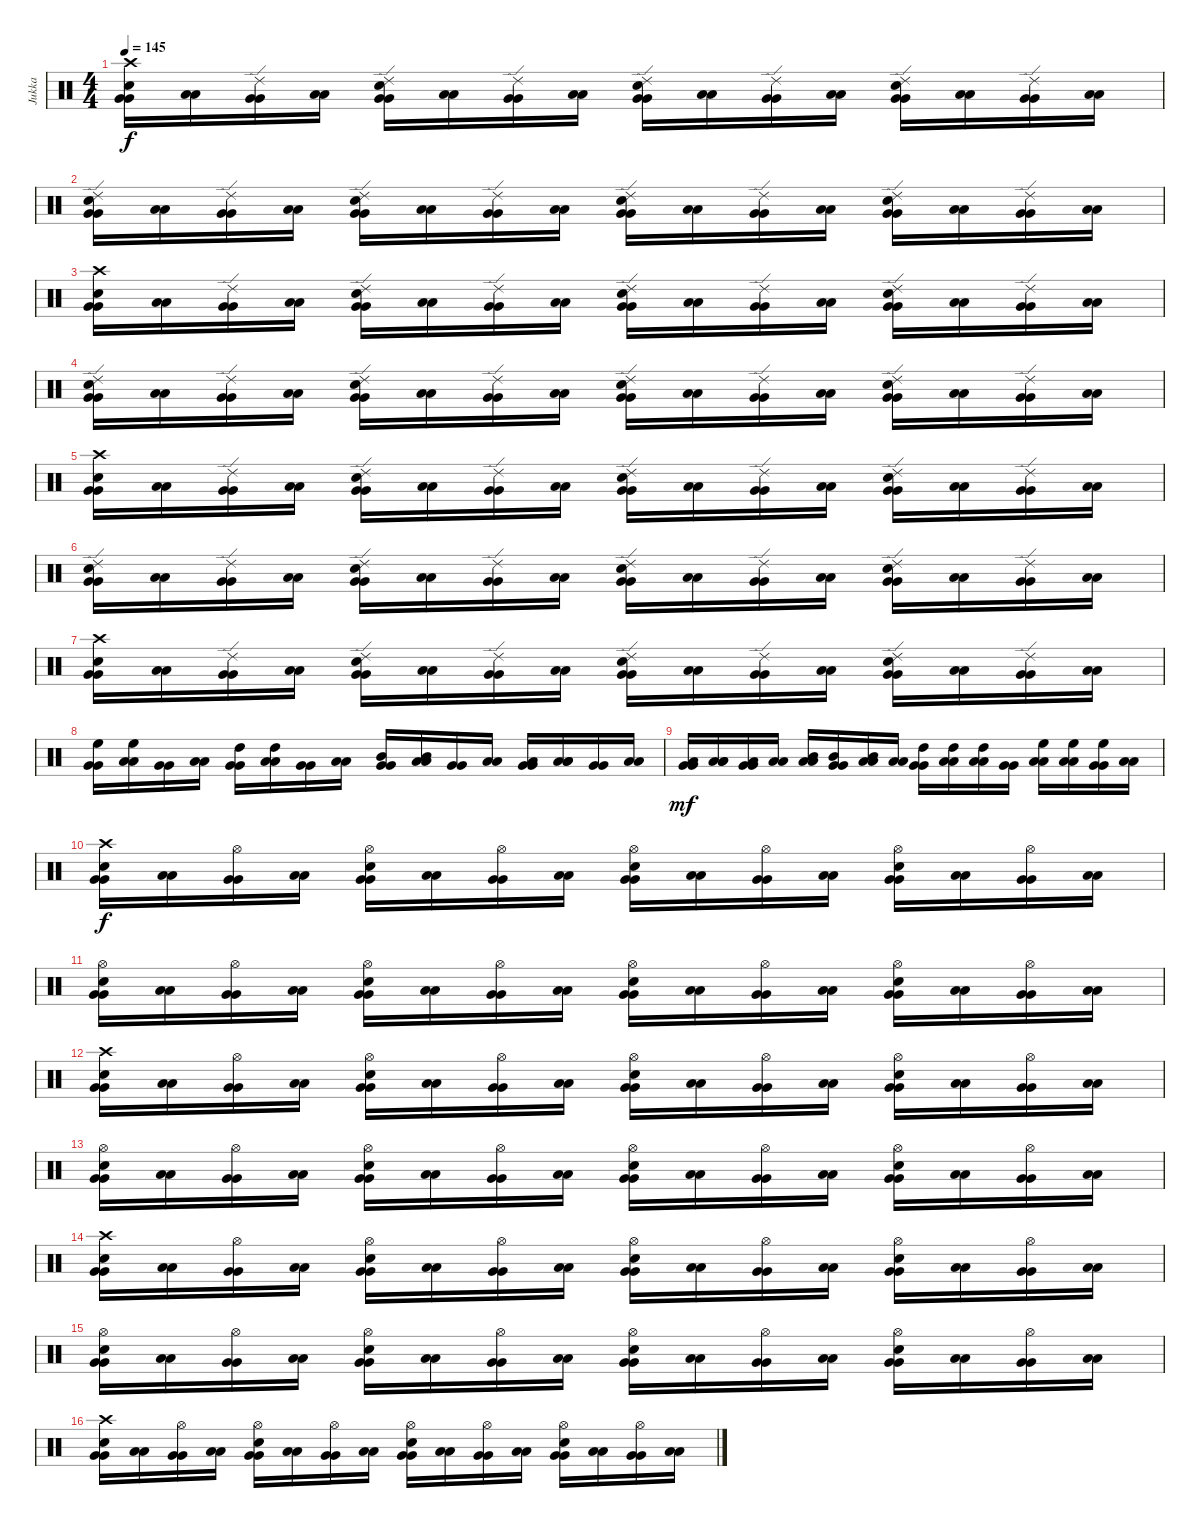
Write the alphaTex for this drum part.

\track ("Jukka" "Jukka") {instrument percussion}
\staff {score}
\articulation defaults
\ts (4 4)
\tempo 145
\clef neutral
\ks c
("Crash high (hit)" "Electric Snare (hit)" "Very Low Tom (hit)" "Very Low Tom (hit)").16{dy f} ("Low Floor Tom (hit)" "Low Floor Tom (hit)").16 ("Ride (edge) 2" "Very Low Tom (hit)" "Very Low Tom (hit)").16 ("Low Floor Tom (hit)" "Low Floor Tom (hit)").16 ("Ride (edge) 2" "Electric Snare (hit)" "Very Low Tom (hit)" "Very Low Tom (hit)").16 ("Low Floor Tom (hit)" "Low Floor Tom (hit)").16 ("Ride (edge) 2" "Very Low Tom (hit)" "Very Low Tom (hit)").16 ("Low Floor Tom (hit)" "Low Floor Tom (hit)").16 ("Ride (edge) 2" "Electric Snare (hit)" "Very Low Tom (hit)" "Very Low Tom (hit)").16 ("Low Floor Tom (hit)" "Low Floor Tom (hit)").16 ("Ride (edge) 2" "Very Low Tom (hit)" "Very Low Tom (hit)").16 ("Low Floor Tom (hit)" "Low Floor Tom (hit)").16 ("Ride (edge) 2" "Electric Snare (hit)" "Very Low Tom (hit)" "Very Low Tom (hit)").16 ("Low Floor Tom (hit)" "Low Floor Tom (hit)").16 ("Ride (edge) 2" "Very Low Tom (hit)" "Very Low Tom (hit)").16 ("Low Floor Tom (hit)" "Low Floor Tom (hit)").16 |
("Ride (edge) 2" "Electric Snare (hit)" "Very Low Tom (hit)" "Very Low Tom (hit)").16 ("Low Floor Tom (hit)" "Low Floor Tom (hit)").16 ("Ride (edge) 2" "Very Low Tom (hit)" "Very Low Tom (hit)").16 ("Low Floor Tom (hit)" "Low Floor Tom (hit)").16 ("Ride (edge) 2" "Electric Snare (hit)" "Very Low Tom (hit)" "Very Low Tom (hit)").16 ("Low Floor Tom (hit)" "Low Floor Tom (hit)").16 ("Ride (edge) 2" "Very Low Tom (hit)" "Very Low Tom (hit)").16 ("Low Floor Tom (hit)" "Low Floor Tom (hit)").16 ("Ride (edge) 2" "Electric Snare (hit)" "Very Low Tom (hit)" "Very Low Tom (hit)").16 ("Low Floor Tom (hit)" "Low Floor Tom (hit)").16 ("Ride (edge) 2" "Very Low Tom (hit)" "Very Low Tom (hit)").16 ("Low Floor Tom (hit)" "Low Floor Tom (hit)").16 ("Ride (edge) 2" "Electric Snare (hit)" "Very Low Tom (hit)" "Very Low Tom (hit)").16 ("Low Floor Tom (hit)" "Low Floor Tom (hit)").16 ("Ride (edge) 2" "Very Low Tom (hit)" "Very Low Tom (hit)").16 ("Low Floor Tom (hit)" "Low Floor Tom (hit)").16 |
("Crash high (hit)" "Electric Snare (hit)" "Very Low Tom (hit)" "Very Low Tom (hit)").16 ("Low Floor Tom (hit)" "Low Floor Tom (hit)").16 ("Ride (edge) 2" "Very Low Tom (hit)" "Very Low Tom (hit)").16 ("Low Floor Tom (hit)" "Low Floor Tom (hit)").16 ("Ride (edge) 2" "Electric Snare (hit)" "Very Low Tom (hit)" "Very Low Tom (hit)").16 ("Low Floor Tom (hit)" "Low Floor Tom (hit)").16 ("Ride (edge) 2" "Very Low Tom (hit)" "Very Low Tom (hit)").16 ("Low Floor Tom (hit)" "Low Floor Tom (hit)").16 ("Ride (edge) 2" "Electric Snare (hit)" "Very Low Tom (hit)" "Very Low Tom (hit)").16 ("Low Floor Tom (hit)" "Low Floor Tom (hit)").16 ("Ride (edge) 2" "Very Low Tom (hit)" "Very Low Tom (hit)").16 ("Low Floor Tom (hit)" "Low Floor Tom (hit)").16 ("Ride (edge) 2" "Electric Snare (hit)" "Very Low Tom (hit)" "Very Low Tom (hit)").16 ("Low Floor Tom (hit)" "Low Floor Tom (hit)").16 ("Ride (edge) 2" "Very Low Tom (hit)" "Very Low Tom (hit)").16 ("Low Floor Tom (hit)" "Low Floor Tom (hit)").16 |
("Ride (edge) 2" "Electric Snare (hit)" "Very Low Tom (hit)" "Very Low Tom (hit)").16 ("Low Floor Tom (hit)" "Low Floor Tom (hit)").16 ("Ride (edge) 2" "Very Low Tom (hit)" "Very Low Tom (hit)").16 ("Low Floor Tom (hit)" "Low Floor Tom (hit)").16 ("Ride (edge) 2" "Electric Snare (hit)" "Very Low Tom (hit)" "Very Low Tom (hit)").16 ("Low Floor Tom (hit)" "Low Floor Tom (hit)").16 ("Ride (edge) 2" "Very Low Tom (hit)" "Very Low Tom (hit)").16 ("Low Floor Tom (hit)" "Low Floor Tom (hit)").16 ("Ride (edge) 2" "Electric Snare (hit)" "Very Low Tom (hit)" "Very Low Tom (hit)").16 ("Low Floor Tom (hit)" "Low Floor Tom (hit)").16 ("Ride (edge) 2" "Very Low Tom (hit)" "Very Low Tom (hit)").16 ("Low Floor Tom (hit)" "Low Floor Tom (hit)").16 ("Ride (edge) 2" "Electric Snare (hit)" "Very Low Tom (hit)" "Very Low Tom (hit)").16 ("Low Floor Tom (hit)" "Low Floor Tom (hit)").16 ("Ride (edge) 2" "Very Low Tom (hit)" "Very Low Tom (hit)").16 ("Low Floor Tom (hit)" "Low Floor Tom (hit)").16 |
("Crash high (hit)" "Electric Snare (hit)" "Very Low Tom (hit)" "Very Low Tom (hit)").16 ("Low Floor Tom (hit)" "Low Floor Tom (hit)").16 ("Ride (edge) 2" "Very Low Tom (hit)" "Very Low Tom (hit)").16 ("Low Floor Tom (hit)" "Low Floor Tom (hit)").16 ("Ride (edge) 2" "Electric Snare (hit)" "Very Low Tom (hit)" "Very Low Tom (hit)").16 ("Low Floor Tom (hit)" "Low Floor Tom (hit)").16 ("Ride (edge) 2" "Very Low Tom (hit)" "Very Low Tom (hit)").16 ("Low Floor Tom (hit)" "Low Floor Tom (hit)").16 ("Ride (edge) 2" "Electric Snare (hit)" "Very Low Tom (hit)" "Very Low Tom (hit)").16 ("Low Floor Tom (hit)" "Low Floor Tom (hit)").16 ("Ride (edge) 2" "Very Low Tom (hit)" "Very Low Tom (hit)").16 ("Low Floor Tom (hit)" "Low Floor Tom (hit)").16 ("Ride (edge) 2" "Electric Snare (hit)" "Very Low Tom (hit)" "Very Low Tom (hit)").16 ("Low Floor Tom (hit)" "Low Floor Tom (hit)").16 ("Ride (edge) 2" "Very Low Tom (hit)" "Very Low Tom (hit)").16 ("Low Floor Tom (hit)" "Low Floor Tom (hit)").16 |
("Ride (edge) 2" "Electric Snare (hit)" "Very Low Tom (hit)" "Very Low Tom (hit)").16 ("Low Floor Tom (hit)" "Low Floor Tom (hit)").16 ("Ride (edge) 2" "Very Low Tom (hit)" "Very Low Tom (hit)").16 ("Low Floor Tom (hit)" "Low Floor Tom (hit)").16 ("Ride (edge) 2" "Electric Snare (hit)" "Very Low Tom (hit)" "Very Low Tom (hit)").16 ("Low Floor Tom (hit)" "Low Floor Tom (hit)").16 ("Ride (edge) 2" "Very Low Tom (hit)" "Very Low Tom (hit)").16 ("Low Floor Tom (hit)" "Low Floor Tom (hit)").16 ("Ride (edge) 2" "Electric Snare (hit)" "Very Low Tom (hit)" "Very Low Tom (hit)").16 ("Low Floor Tom (hit)" "Low Floor Tom (hit)").16 ("Ride (edge) 2" "Very Low Tom (hit)" "Very Low Tom (hit)").16 ("Low Floor Tom (hit)" "Low Floor Tom (hit)").16 ("Ride (edge) 2" "Electric Snare (hit)" "Very Low Tom (hit)" "Very Low Tom (hit)").16 ("Low Floor Tom (hit)" "Low Floor Tom (hit)").16 ("Ride (edge) 2" "Very Low Tom (hit)" "Very Low Tom (hit)").16 ("Low Floor Tom (hit)" "Low Floor Tom (hit)").16 |
("Crash high (hit)" "Electric Snare (hit)" "Very Low Tom (hit)" "Very Low Tom (hit)").16 ("Low Floor Tom (hit)" "Low Floor Tom (hit)").16 ("Ride (edge) 2" "Very Low Tom (hit)" "Very Low Tom (hit)").16 ("Low Floor Tom (hit)" "Low Floor Tom (hit)").16 ("Ride (edge) 2" "Electric Snare (hit)" "Very Low Tom (hit)" "Very Low Tom (hit)").16 ("Low Floor Tom (hit)" "Low Floor Tom (hit)").16 ("Ride (edge) 2" "Very Low Tom (hit)" "Very Low Tom (hit)").16 ("Low Floor Tom (hit)" "Low Floor Tom (hit)").16 ("Ride (edge) 2" "Electric Snare (hit)" "Very Low Tom (hit)" "Very Low Tom (hit)").16 ("Low Floor Tom (hit)" "Low Floor Tom (hit)").16 ("Ride (edge) 2" "Very Low Tom (hit)" "Very Low Tom (hit)").16 ("Low Floor Tom (hit)" "Low Floor Tom (hit)").16 ("Ride (edge) 2" "Electric Snare (hit)" "Very Low Tom (hit)" "Very Low Tom (hit)").16 ("Low Floor Tom (hit)" "Low Floor Tom (hit)").16 ("Ride (edge) 2" "Very Low Tom (hit)" "Very Low Tom (hit)").16 ("Low Floor Tom (hit)" "Low Floor Tom (hit)").16 |
("High Floor Tom (hit)" "Very Low Tom (hit)" "Very Low Tom (hit)").16 ("High Floor Tom (hit)" "Low Floor Tom (hit)" "Low Floor Tom (hit)").16 ("Very Low Tom (hit)" "Very Low Tom (hit)").16 ("Low Floor Tom (hit)" "Low Floor Tom (hit)").16 ("High Tom (hit)" "Very Low Tom (hit)" "Very Low Tom (hit)").16 ("High Tom (hit)" "Low Floor Tom (hit)" "Low Floor Tom (hit)").16 ("Very Low Tom (hit)" "Very Low Tom (hit)").16 ("Low Floor Tom (hit)" "Low Floor Tom (hit)").16 ("Mid Tom (hit)" "Very Low Tom (hit)" "Very Low Tom (hit)").16 ("Mid Tom (hit)" "Low Floor Tom (hit)" "Low Floor Tom (hit)").16 ("Very Low Tom (hit)" "Very Low Tom (hit)").16 ("Low Floor Tom (hit)" "Low Floor Tom (hit)").16 ("Low Tom (hit)" "Very Low Tom (hit)" "Very Low Tom (hit)").16 ("Low Tom (hit)" "Low Floor Tom (hit)" "Low Floor Tom (hit)").16 ("Very Low Tom (hit)" "Very Low Tom (hit)").16 ("Low Floor Tom (hit)" "Low Floor Tom (hit)").16 |
("Low Tom (hit)" "Very Low Tom (hit)" "Very Low Tom (hit)").16{dy mf} ("Low Tom (hit)" "Low Floor Tom (hit)" "Low Floor Tom (hit)").16 ("Low Tom (hit)" "Very Low Tom (hit)" "Very Low Tom (hit)").16 ("Low Floor Tom (hit)" "Low Floor Tom (hit)").16 ("Mid Tom (hit)" "Low Floor Tom (hit)" "Low Floor Tom (hit)").16 ("Mid Tom (hit)" "Very Low Tom (hit)" "Very Low Tom (hit)").16 ("Mid Tom (hit)" "Low Floor Tom (hit)" "Low Floor Tom (hit)").16 ("Low Floor Tom (hit)" "Low Floor Tom (hit)").16 ("High Tom (hit)" "Very Low Tom (hit)" "Very Low Tom (hit)").16 ("High Tom (hit)" "Low Floor Tom (hit)" "Low Floor Tom (hit)").16 ("High Tom (hit)" "Low Floor Tom (hit)" "Low Floor Tom (hit)").16 ("Very Low Tom (hit)" "Very Low Tom (hit)").16 ("High Floor Tom (hit)" "Low Floor Tom (hit)" "Low Floor Tom (hit)").16 ("High Floor Tom (hit)" "Low Floor Tom (hit)" "Low Floor Tom (hit)").16 ("High Floor Tom (hit)" "Very Low Tom (hit)" "Very Low Tom (hit)").16 ("Low Floor Tom (hit)" "Low Floor Tom (hit)").16 |
("Crash high (hit)" "Electric Snare (hit)" "Very Low Tom (hit)" "Very Low Tom (hit)").16{dy f} ("Low Floor Tom (hit)" "Low Floor Tom (hit)").16 ("Hi-Hat (open)" "Very Low Tom (hit)" "Very Low Tom (hit)").16 ("Low Floor Tom (hit)" "Low Floor Tom (hit)").16 ("Hi-Hat (open)" "Electric Snare (hit)" "Very Low Tom (hit)" "Very Low Tom (hit)").16 ("Low Floor Tom (hit)" "Low Floor Tom (hit)").16 ("Hi-Hat (open)" "Very Low Tom (hit)" "Very Low Tom (hit)").16 ("Low Floor Tom (hit)" "Low Floor Tom (hit)").16 ("Hi-Hat (open)" "Electric Snare (hit)" "Very Low Tom (hit)" "Very Low Tom (hit)").16 ("Low Floor Tom (hit)" "Low Floor Tom (hit)").16 ("Hi-Hat (open)" "Very Low Tom (hit)" "Very Low Tom (hit)").16 ("Low Floor Tom (hit)" "Low Floor Tom (hit)").16 ("Hi-Hat (open)" "Electric Snare (hit)" "Very Low Tom (hit)" "Very Low Tom (hit)").16 ("Low Floor Tom (hit)" "Low Floor Tom (hit)").16 ("Hi-Hat (open)" "Very Low Tom (hit)" "Very Low Tom (hit)").16 ("Low Floor Tom (hit)" "Low Floor Tom (hit)").16 |
("Hi-Hat (open)" "Electric Snare (hit)" "Very Low Tom (hit)" "Very Low Tom (hit)").16 ("Low Floor Tom (hit)" "Low Floor Tom (hit)").16 ("Hi-Hat (open)" "Very Low Tom (hit)" "Very Low Tom (hit)").16 ("Low Floor Tom (hit)" "Low Floor Tom (hit)").16 ("Hi-Hat (open)" "Electric Snare (hit)" "Very Low Tom (hit)" "Very Low Tom (hit)").16 ("Low Floor Tom (hit)" "Low Floor Tom (hit)").16 ("Hi-Hat (open)" "Very Low Tom (hit)" "Very Low Tom (hit)").16 ("Low Floor Tom (hit)" "Low Floor Tom (hit)").16 ("Hi-Hat (open)" "Electric Snare (hit)" "Very Low Tom (hit)" "Very Low Tom (hit)").16 ("Low Floor Tom (hit)" "Low Floor Tom (hit)").16 ("Hi-Hat (open)" "Very Low Tom (hit)" "Very Low Tom (hit)").16 ("Low Floor Tom (hit)" "Low Floor Tom (hit)").16 ("Hi-Hat (open)" "Electric Snare (hit)" "Very Low Tom (hit)" "Very Low Tom (hit)").16 ("Low Floor Tom (hit)" "Low Floor Tom (hit)").16 ("Hi-Hat (open)" "Very Low Tom (hit)" "Very Low Tom (hit)").16 ("Low Floor Tom (hit)" "Low Floor Tom (hit)").16 |
("Crash high (hit)" "Electric Snare (hit)" "Very Low Tom (hit)" "Very Low Tom (hit)").16 ("Low Floor Tom (hit)" "Low Floor Tom (hit)").16 ("Hi-Hat (open)" "Very Low Tom (hit)" "Very Low Tom (hit)").16 ("Low Floor Tom (hit)" "Low Floor Tom (hit)").16 ("Hi-Hat (open)" "Electric Snare (hit)" "Very Low Tom (hit)" "Very Low Tom (hit)").16 ("Low Floor Tom (hit)" "Low Floor Tom (hit)").16 ("Hi-Hat (open)" "Very Low Tom (hit)" "Very Low Tom (hit)").16 ("Low Floor Tom (hit)" "Low Floor Tom (hit)").16 ("Hi-Hat (open)" "Electric Snare (hit)" "Very Low Tom (hit)" "Very Low Tom (hit)").16 ("Low Floor Tom (hit)" "Low Floor Tom (hit)").16 ("Hi-Hat (open)" "Very Low Tom (hit)" "Very Low Tom (hit)").16 ("Low Floor Tom (hit)" "Low Floor Tom (hit)").16 ("Hi-Hat (open)" "Electric Snare (hit)" "Very Low Tom (hit)" "Very Low Tom (hit)").16 ("Low Floor Tom (hit)" "Low Floor Tom (hit)").16 ("Hi-Hat (open)" "Very Low Tom (hit)" "Very Low Tom (hit)").16 ("Low Floor Tom (hit)" "Low Floor Tom (hit)").16 |
("Hi-Hat (open)" "Electric Snare (hit)" "Very Low Tom (hit)" "Very Low Tom (hit)").16 ("Low Floor Tom (hit)" "Low Floor Tom (hit)").16 ("Hi-Hat (open)" "Very Low Tom (hit)" "Very Low Tom (hit)").16 ("Low Floor Tom (hit)" "Low Floor Tom (hit)").16 ("Hi-Hat (open)" "Electric Snare (hit)" "Very Low Tom (hit)" "Very Low Tom (hit)").16 ("Low Floor Tom (hit)" "Low Floor Tom (hit)").16 ("Hi-Hat (open)" "Very Low Tom (hit)" "Very Low Tom (hit)").16 ("Low Floor Tom (hit)" "Low Floor Tom (hit)").16 ("Hi-Hat (open)" "Electric Snare (hit)" "Very Low Tom (hit)" "Very Low Tom (hit)").16 ("Low Floor Tom (hit)" "Low Floor Tom (hit)").16 ("Hi-Hat (open)" "Very Low Tom (hit)" "Very Low Tom (hit)").16 ("Low Floor Tom (hit)" "Low Floor Tom (hit)").16 ("Hi-Hat (open)" "Electric Snare (hit)" "Very Low Tom (hit)" "Very Low Tom (hit)").16 ("Low Floor Tom (hit)" "Low Floor Tom (hit)").16 ("Hi-Hat (open)" "Very Low Tom (hit)" "Very Low Tom (hit)").16 ("Low Floor Tom (hit)" "Low Floor Tom (hit)").16 |
("Crash high (hit)" "Electric Snare (hit)" "Very Low Tom (hit)" "Very Low Tom (hit)").16 ("Low Floor Tom (hit)" "Low Floor Tom (hit)").16 ("Hi-Hat (open)" "Very Low Tom (hit)" "Very Low Tom (hit)").16 ("Low Floor Tom (hit)" "Low Floor Tom (hit)").16 ("Hi-Hat (open)" "Electric Snare (hit)" "Very Low Tom (hit)" "Very Low Tom (hit)").16 ("Low Floor Tom (hit)" "Low Floor Tom (hit)").16 ("Hi-Hat (open)" "Very Low Tom (hit)" "Very Low Tom (hit)").16 ("Low Floor Tom (hit)" "Low Floor Tom (hit)").16 ("Hi-Hat (open)" "Electric Snare (hit)" "Very Low Tom (hit)" "Very Low Tom (hit)").16 ("Low Floor Tom (hit)" "Low Floor Tom (hit)").16 ("Hi-Hat (open)" "Very Low Tom (hit)" "Very Low Tom (hit)").16 ("Low Floor Tom (hit)" "Low Floor Tom (hit)").16 ("Hi-Hat (open)" "Electric Snare (hit)" "Very Low Tom (hit)" "Very Low Tom (hit)").16 ("Low Floor Tom (hit)" "Low Floor Tom (hit)").16 ("Hi-Hat (open)" "Very Low Tom (hit)" "Very Low Tom (hit)").16 ("Low Floor Tom (hit)" "Low Floor Tom (hit)").16 |
("Hi-Hat (open)" "Electric Snare (hit)" "Very Low Tom (hit)" "Very Low Tom (hit)").16 ("Low Floor Tom (hit)" "Low Floor Tom (hit)").16 ("Hi-Hat (open)" "Very Low Tom (hit)" "Very Low Tom (hit)").16 ("Low Floor Tom (hit)" "Low Floor Tom (hit)").16 ("Hi-Hat (open)" "Electric Snare (hit)" "Very Low Tom (hit)" "Very Low Tom (hit)").16 ("Low Floor Tom (hit)" "Low Floor Tom (hit)").16 ("Hi-Hat (open)" "Very Low Tom (hit)" "Very Low Tom (hit)").16 ("Low Floor Tom (hit)" "Low Floor Tom (hit)").16 ("Hi-Hat (open)" "Electric Snare (hit)" "Very Low Tom (hit)" "Very Low Tom (hit)").16 ("Low Floor Tom (hit)" "Low Floor Tom (hit)").16 ("Hi-Hat (open)" "Very Low Tom (hit)" "Very Low Tom (hit)").16 ("Low Floor Tom (hit)" "Low Floor Tom (hit)").16 ("Hi-Hat (open)" "Electric Snare (hit)" "Very Low Tom (hit)" "Very Low Tom (hit)").16 ("Low Floor Tom (hit)" "Low Floor Tom (hit)").16 ("Hi-Hat (open)" "Very Low Tom (hit)" "Very Low Tom (hit)").16 ("Low Floor Tom (hit)" "Low Floor Tom (hit)").16 |
("Crash high (hit)" "Electric Snare (hit)" "Very Low Tom (hit)" "Very Low Tom (hit)").16 ("Low Floor Tom (hit)" "Low Floor Tom (hit)").16 ("Hi-Hat (open)" "Very Low Tom (hit)" "Very Low Tom (hit)").16 ("Low Floor Tom (hit)" "Low Floor Tom (hit)").16 ("Hi-Hat (open)" "Electric Snare (hit)" "Very Low Tom (hit)" "Very Low Tom (hit)").16 ("Low Floor Tom (hit)" "Low Floor Tom (hit)").16 ("Hi-Hat (open)" "Very Low Tom (hit)" "Very Low Tom (hit)").16 ("Low Floor Tom (hit)" "Low Floor Tom (hit)").16 ("Hi-Hat (open)" "Electric Snare (hit)" "Very Low Tom (hit)" "Very Low Tom (hit)").16 ("Low Floor Tom (hit)" "Low Floor Tom (hit)").16 ("Hi-Hat (open)" "Very Low Tom (hit)" "Very Low Tom (hit)").16 ("Low Floor Tom (hit)" "Low Floor Tom (hit)").16 ("Hi-Hat (open)" "Electric Snare (hit)" "Very Low Tom (hit)" "Very Low Tom (hit)").16 ("Low Floor Tom (hit)" "Low Floor Tom (hit)").16 ("Hi-Hat (open)" "Very Low Tom (hit)" "Very Low Tom (hit)").16 ("Low Floor Tom (hit)" "Low Floor Tom (hit)").16
